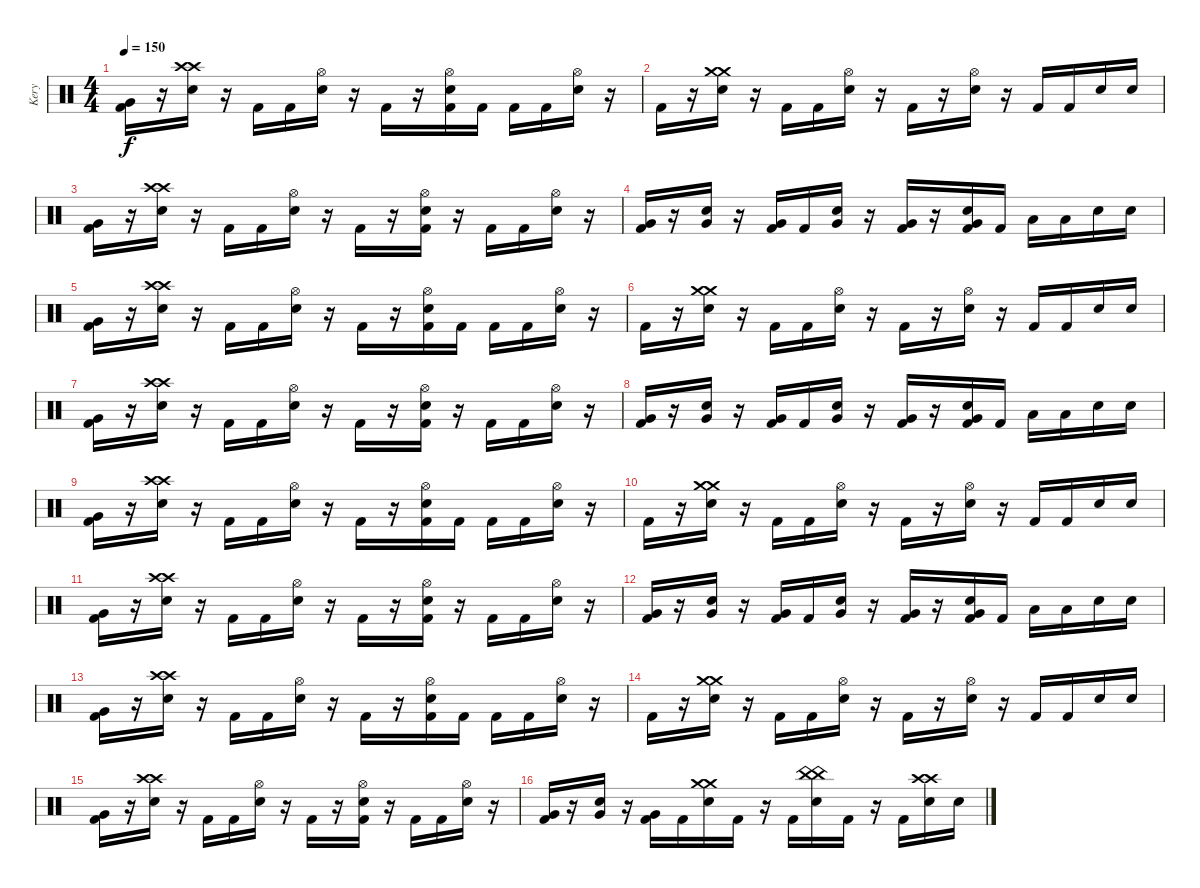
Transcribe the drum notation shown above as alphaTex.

\track ("Kery" "Kery") {instrument percussion}
\staff {score}
\articulation defaults
\ts (4 4)
\tempo 150
\clef neutral
\ks c
("Very Low Tom (hit)" "Kick (hit) 2").16{dy f} r.16 ("Crash high (hit)" "Crash high (hit)" "Electric Snare (hit)").16 r.16 "Kick (hit) 2".16 "Kick (hit) 2".16 ("Hi-Hat (open)" "Electric Snare (hit)").16 r.16 "Kick (hit) 2".16 r.16 ("Hi-Hat (open)" "Electric Snare (hit)" "Kick (hit) 2").16 "Kick (hit) 2".16 "Kick (hit) 2".16 "Kick (hit) 2".16 ("Hi-Hat (open)" "Electric Snare (hit)").16 r.16 |
"Kick (hit) 2".16 r.16 ("Crash medium (hit)" "Crash medium (hit)" "Electric Snare (hit)").16 r.16 "Kick (hit) 2".16 "Kick (hit) 2".16 ("Hi-Hat (open)" "Electric Snare (hit)").16 r.16 "Kick (hit) 2".16 r.16 ("Hi-Hat (open)" "Electric Snare (hit)").16 r.16 "Kick (hit) 2".16 "Kick (hit) 2".16 "Electric Snare (hit)".16 "Electric Snare (hit)".16 |
("Very Low Tom (hit)" "Kick (hit) 2").16 r.16 ("Crash high (hit)" "Crash high (hit)" "Electric Snare (hit)").16 r.16 "Kick (hit) 2".16 "Kick (hit) 2".16 ("Hi-Hat (open)" "Electric Snare (hit)").16 r.16 "Kick (hit) 2".16 r.16 ("Hi-Hat (open)" "Electric Snare (hit)" "Kick (hit) 2").16 r.16 "Kick (hit) 2".16 "Kick (hit) 2".16 ("Hi-Hat (open)" "Electric Snare (hit)").16 r.16 |
("Very Low Tom (hit)" "Kick (hit) 2").16 r.16 ("Very Low Tom (hit)" "Electric Snare (hit)").16 r.16 ("Very Low Tom (hit)" "Kick (hit) 2").16 "Kick (hit) 2".16 ("Very Low Tom (hit)" "Electric Snare (hit)").16 r.16 ("Very Low Tom (hit)" "Kick (hit) 2").16 r.16 ("Very Low Tom (hit)" "Electric Snare (hit)" "Kick (hit) 2").16 "Kick (hit) 2".16 "Low Tom (hit)".16 "Low Tom (hit)".16 "Electric Snare (hit)".16 "Electric Snare (hit)".16 |
("Very Low Tom (hit)" "Kick (hit) 2").16 r.16 ("Crash high (hit)" "Crash high (hit)" "Electric Snare (hit)").16 r.16 "Kick (hit) 2".16 "Kick (hit) 2".16 ("Hi-Hat (open)" "Electric Snare (hit)").16 r.16 "Kick (hit) 2".16 r.16 ("Hi-Hat (open)" "Electric Snare (hit)" "Kick (hit) 2").16 "Kick (hit) 2".16 "Kick (hit) 2".16 "Kick (hit) 2".16 ("Hi-Hat (open)" "Electric Snare (hit)").16 r.16 |
"Kick (hit) 2".16 r.16 ("Crash medium (hit)" "Crash medium (hit)" "Electric Snare (hit)").16 r.16 "Kick (hit) 2".16 "Kick (hit) 2".16 ("Hi-Hat (open)" "Electric Snare (hit)").16 r.16 "Kick (hit) 2".16 r.16 ("Hi-Hat (open)" "Electric Snare (hit)").16 r.16 "Kick (hit) 2".16 "Kick (hit) 2".16 "Electric Snare (hit)".16 "Electric Snare (hit)".16 |
("Very Low Tom (hit)" "Kick (hit) 2").16 r.16 ("Crash high (hit)" "Crash high (hit)" "Electric Snare (hit)").16 r.16 "Kick (hit) 2".16 "Kick (hit) 2".16 ("Hi-Hat (open)" "Electric Snare (hit)").16 r.16 "Kick (hit) 2".16 r.16 ("Hi-Hat (open)" "Electric Snare (hit)" "Kick (hit) 2").16 r.16 "Kick (hit) 2".16 "Kick (hit) 2".16 ("Hi-Hat (open)" "Electric Snare (hit)").16 r.16 |
("Very Low Tom (hit)" "Kick (hit) 2").16 r.16 ("Very Low Tom (hit)" "Electric Snare (hit)").16 r.16 ("Very Low Tom (hit)" "Kick (hit) 2").16 "Kick (hit) 2".16 ("Very Low Tom (hit)" "Electric Snare (hit)").16 r.16 ("Very Low Tom (hit)" "Kick (hit) 2").16 r.16 ("Very Low Tom (hit)" "Electric Snare (hit)" "Kick (hit) 2").16 "Kick (hit) 2".16 "Low Tom (hit)".16 "Low Tom (hit)".16 "Electric Snare (hit)".16 "Electric Snare (hit)".16 |
("Very Low Tom (hit)" "Kick (hit) 2").16 r.16 ("Crash high (hit)" "Crash high (hit)" "Electric Snare (hit)").16 r.16 "Kick (hit) 2".16 "Kick (hit) 2".16 ("Hi-Hat (open)" "Electric Snare (hit)").16 r.16 "Kick (hit) 2".16 r.16 ("Hi-Hat (open)" "Electric Snare (hit)" "Kick (hit) 2").16 "Kick (hit) 2".16 "Kick (hit) 2".16 "Kick (hit) 2".16 ("Hi-Hat (open)" "Electric Snare (hit)").16 r.16 |
"Kick (hit) 2".16 r.16 ("Crash medium (hit)" "Crash medium (hit)" "Electric Snare (hit)").16 r.16 "Kick (hit) 2".16 "Kick (hit) 2".16 ("Hi-Hat (open)" "Electric Snare (hit)").16 r.16 "Kick (hit) 2".16 r.16 ("Hi-Hat (open)" "Electric Snare (hit)").16 r.16 "Kick (hit) 2".16 "Kick (hit) 2".16 "Electric Snare (hit)".16 "Electric Snare (hit)".16 |
("Very Low Tom (hit)" "Kick (hit) 2").16 r.16 ("Crash high (hit)" "Crash high (hit)" "Electric Snare (hit)").16 r.16 "Kick (hit) 2".16 "Kick (hit) 2".16 ("Hi-Hat (open)" "Electric Snare (hit)").16 r.16 "Kick (hit) 2".16 r.16 ("Hi-Hat (open)" "Electric Snare (hit)" "Kick (hit) 2").16 r.16 "Kick (hit) 2".16 "Kick (hit) 2".16 ("Hi-Hat (open)" "Electric Snare (hit)").16 r.16 |
("Very Low Tom (hit)" "Kick (hit) 2").16 r.16 ("Very Low Tom (hit)" "Electric Snare (hit)").16 r.16 ("Very Low Tom (hit)" "Kick (hit) 2").16 "Kick (hit) 2".16 ("Very Low Tom (hit)" "Electric Snare (hit)").16 r.16 ("Very Low Tom (hit)" "Kick (hit) 2").16 r.16 ("Very Low Tom (hit)" "Electric Snare (hit)" "Kick (hit) 2").16 "Kick (hit) 2".16 "Low Tom (hit)".16 "Low Tom (hit)".16 "Electric Snare (hit)".16 "Electric Snare (hit)".16 |
("Very Low Tom (hit)" "Kick (hit) 2").16 r.16 ("Crash high (hit)" "Crash high (hit)" "Electric Snare (hit)").16 r.16 "Kick (hit) 2".16 "Kick (hit) 2".16 ("Hi-Hat (open)" "Electric Snare (hit)").16 r.16 "Kick (hit) 2".16 r.16 ("Hi-Hat (open)" "Electric Snare (hit)" "Kick (hit) 2").16 "Kick (hit) 2".16 "Kick (hit) 2".16 "Kick (hit) 2".16 ("Hi-Hat (open)" "Electric Snare (hit)").16 r.16 |
"Kick (hit) 2".16 r.16 ("Crash medium (hit)" "Crash medium (hit)" "Electric Snare (hit)").16 r.16 "Kick (hit) 2".16 "Kick (hit) 2".16 ("Hi-Hat (open)" "Electric Snare (hit)").16 r.16 "Kick (hit) 2".16 r.16 ("Hi-Hat (open)" "Electric Snare (hit)").16 r.16 "Kick (hit) 2".16 "Kick (hit) 2".16 "Electric Snare (hit)".16 "Electric Snare (hit)".16 |
("Very Low Tom (hit)" "Kick (hit) 2").16 r.16 ("Crash high (hit)" "Crash high (hit)" "Electric Snare (hit)").16 r.16 "Kick (hit) 2".16 "Kick (hit) 2".16 ("Hi-Hat (open)" "Electric Snare (hit)").16 r.16 "Kick (hit) 2".16 r.16 ("Hi-Hat (open)" "Electric Snare (hit)" "Kick (hit) 2").16 r.16 "Kick (hit) 2".16 "Kick (hit) 2".16 ("Hi-Hat (open)" "Electric Snare (hit)").16 r.16 |
("Very Low Tom (hit)" "Kick (hit) 2").16 r.16 ("Very Low Tom (hit)" "Electric Snare (hit)").16 r.16 ("Very Low Tom (hit)" "Kick (hit) 2").16 "Kick (hit) 2".16 ("Crash medium (hit)" "Crash medium (hit)" "Electric Snare (hit)").16 "Kick (hit) 2".16 r.16 "Kick (hit) 2".16 ("China (hit)" "China (hit)" "Electric Snare (hit)").16 "Kick (hit) 2".16 r.16 "Kick (hit) 2".16 ("Crash high (hit)" "Crash high (hit)" "Electric Snare (hit)").16 "Electric Snare (hit)".16
